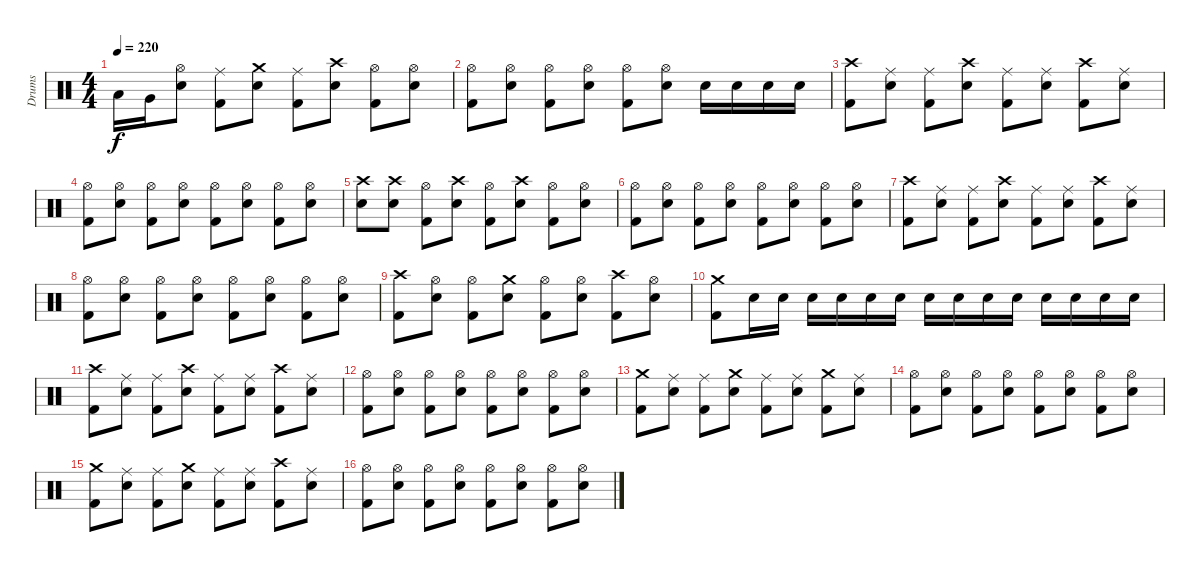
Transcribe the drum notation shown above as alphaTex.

\track ("Drums" "Drums") {instrument percussion}
\staff {score}
\articulation defaults
\ts (4 4)
\tempo 220
\clef neutral
\ks c "Low Tom (hit)".16{dy f} "Very Low Tom (hit)".16
("Hi-Hat (open)" "Electric Snare (hit)").8 ("Ride (middle)" "Kick (hit) 2").8 ("Crash medium (hit)" "Electric Snare (hit)").8 ("Ride (middle)" "Kick (hit) 2").8 ("Crash high (hit)" "Electric Snare (hit)").8 ("Hi-Hat (open)" "Kick (hit) 2").8 ("Hi-Hat (open)" "Electric Snare (hit)").8 |
("Hi-Hat (open)" "Kick (hit) 2").8 ("Hi-Hat (open)" "Electric Snare (hit)").8 ("Hi-Hat (open)" "Kick (hit) 2").8 ("Hi-Hat (open)" "Electric Snare (hit)").8 ("Hi-Hat (open)" "Kick (hit) 2").8 ("Hi-Hat (open)" "Electric Snare (hit)").8 "Electric Snare (hit)".16 "Electric Snare (hit)".16 "Electric Snare (hit)".16 "Electric Snare (hit)".16 |
("Crash high (hit)" "Kick (hit) 2").8 ("Ride (middle)" "Electric Snare (hit)").8 ("Ride (middle)" "Kick (hit) 2").8 ("Crash high (hit)" "Electric Snare (hit)").8 ("Ride (middle)" "Kick (hit) 2").8 ("Ride (middle)" "Electric Snare (hit)").8 ("Crash high (hit)" "Kick (hit) 2").8 ("Ride (middle)" "Electric Snare (hit)").8 |
("Hi-Hat (open)" "Kick (hit) 2").8 ("Hi-Hat (open)" "Electric Snare (hit)").8 ("Hi-Hat (open)" "Kick (hit) 2").8 ("Hi-Hat (open)" "Electric Snare (hit)").8 ("Hi-Hat (open)" "Kick (hit) 2").8 ("Hi-Hat (open)" "Electric Snare (hit)").8 ("Hi-Hat (open)" "Kick (hit) 2").8 ("Hi-Hat (open)" "Electric Snare (hit)").8 |
("Crash high (hit)" "Electric Snare (hit)").8 ("Crash high (hit)" "Electric Snare (hit)").8 ("Hi-Hat (open)" "Kick (hit) 2").8 ("Crash high (hit)" "Electric Snare (hit)").8 ("Hi-Hat (open)" "Kick (hit) 2").8 ("Crash high (hit)" "Electric Snare (hit)").8 ("Hi-Hat (open)" "Kick (hit) 2").8 ("Hi-Hat (open)" "Electric Snare (hit)").8 |
("Hi-Hat (open)" "Kick (hit) 2").8 ("Hi-Hat (open)" "Electric Snare (hit)").8 ("Hi-Hat (open)" "Kick (hit) 2").8 ("Hi-Hat (open)" "Electric Snare (hit)").8 ("Hi-Hat (open)" "Kick (hit) 2").8 ("Hi-Hat (open)" "Electric Snare (hit)").8 ("Hi-Hat (open)" "Kick (hit) 2").8 ("Hi-Hat (open)" "Electric Snare (hit)").8 |
("Crash high (hit)" "Kick (hit) 2").8 ("Ride (middle)" "Electric Snare (hit)").8 ("Ride (middle)" "Kick (hit) 2").8 ("Crash high (hit)" "Electric Snare (hit)").8 ("Ride (middle)" "Kick (hit) 2").8 ("Ride (middle)" "Electric Snare (hit)").8 ("Crash high (hit)" "Kick (hit) 2").8 ("Ride (middle)" "Electric Snare (hit)").8 |
("Hi-Hat (open)" "Kick (hit) 2").8 ("Hi-Hat (open)" "Electric Snare (hit)").8 ("Hi-Hat (open)" "Kick (hit) 2").8 ("Hi-Hat (open)" "Electric Snare (hit)").8 ("Hi-Hat (open)" "Kick (hit) 2").8 ("Hi-Hat (open)" "Electric Snare (hit)").8 ("Hi-Hat (open)" "Kick (hit) 2").8 ("Hi-Hat (open)" "Electric Snare (hit)").8 |
("Crash high (hit)" "Kick (hit) 2").8 ("Hi-Hat (open)" "Electric Snare (hit)").8 ("Hi-Hat (open)" "Kick (hit) 2").8 ("Crash medium (hit)" "Electric Snare (hit)").8 ("Hi-Hat (open)" "Kick (hit) 2").8 ("Hi-Hat (open)" "Electric Snare (hit)").8 ("Crash high (hit)" "Kick (hit) 2").8 ("Hi-Hat (open)" "Electric Snare (hit)").8 |
("Crash medium (hit)" "Kick (hit) 2").8 "Electric Snare (hit)".16 "Electric Snare (hit)".16 "Electric Snare (hit)".16 "Electric Snare (hit)".16 "Electric Snare (hit)".16 "Electric Snare (hit)".16 "Electric Snare (hit)".16 "Electric Snare (hit)".16 "Electric Snare (hit)".16 "Electric Snare (hit)".16 "Electric Snare (hit)".16 "Electric Snare (hit)".16 "Electric Snare (hit)".16 "Electric Snare (hit)".16 |
("Crash high (hit)" "Kick (hit) 2").8 ("Ride (middle)" "Electric Snare (hit)").8 ("Ride (middle)" "Kick (hit) 2").8 ("Crash high (hit)" "Electric Snare (hit)").8 ("Ride (middle)" "Kick (hit) 2").8 ("Ride (middle)" "Electric Snare (hit)").8 ("Crash high (hit)" "Kick (hit) 2").8 ("Ride (middle)" "Electric Snare (hit)").8 |
("Hi-Hat (open)" "Kick (hit) 2").8 ("Hi-Hat (open)" "Electric Snare (hit)").8 ("Hi-Hat (open)" "Kick (hit) 2").8 ("Hi-Hat (open)" "Electric Snare (hit)").8 ("Hi-Hat (open)" "Kick (hit) 2").8 ("Hi-Hat (open)" "Electric Snare (hit)").8 ("Hi-Hat (open)" "Kick (hit) 2").8 ("Hi-Hat (open)" "Electric Snare (hit)").8 |
("Crash medium (hit)" "Kick (hit) 2").8 ("Ride (middle)" "Electric Snare (hit)").8 ("Ride (middle)" "Kick (hit) 2").8 ("Crash medium (hit)" "Electric Snare (hit)").8 ("Ride (middle)" "Kick (hit) 2").8 ("Ride (middle)" "Electric Snare (hit)").8 ("Crash medium (hit)" "Kick (hit) 2").8 ("Ride (middle)" "Electric Snare (hit)").8 |
("Hi-Hat (open)" "Kick (hit) 2").8 ("Hi-Hat (open)" "Electric Snare (hit)").8 ("Hi-Hat (open)" "Kick (hit) 2").8 ("Hi-Hat (open)" "Electric Snare (hit)").8 ("Hi-Hat (open)" "Kick (hit) 2").8 ("Hi-Hat (open)" "Electric Snare (hit)").8 ("Hi-Hat (open)" "Kick (hit) 2").8 ("Hi-Hat (open)" "Electric Snare (hit)").8 |
("Crash medium (hit)" "Kick (hit) 2").8 ("Ride (middle)" "Electric Snare (hit)").8 ("Ride (middle)" "Kick (hit) 2").8 ("Crash medium (hit)" "Electric Snare (hit)").8 ("Ride (middle)" "Kick (hit) 2").8 ("Ride (middle)" "Electric Snare (hit)").8 ("Crash high (hit)" "Kick (hit) 2").8 ("Ride (middle)" "Electric Snare (hit)").8 |
("Hi-Hat (open)" "Kick (hit) 2").8 ("Hi-Hat (open)" "Electric Snare (hit)").8 ("Hi-Hat (open)" "Kick (hit) 2").8 ("Hi-Hat (open)" "Electric Snare (hit)").8 ("Hi-Hat (open)" "Kick (hit) 2").8 ("Hi-Hat (open)" "Electric Snare (hit)").8 ("Hi-Hat (open)" "Kick (hit) 2").8 ("Hi-Hat (open)" "Electric Snare (hit)").8
